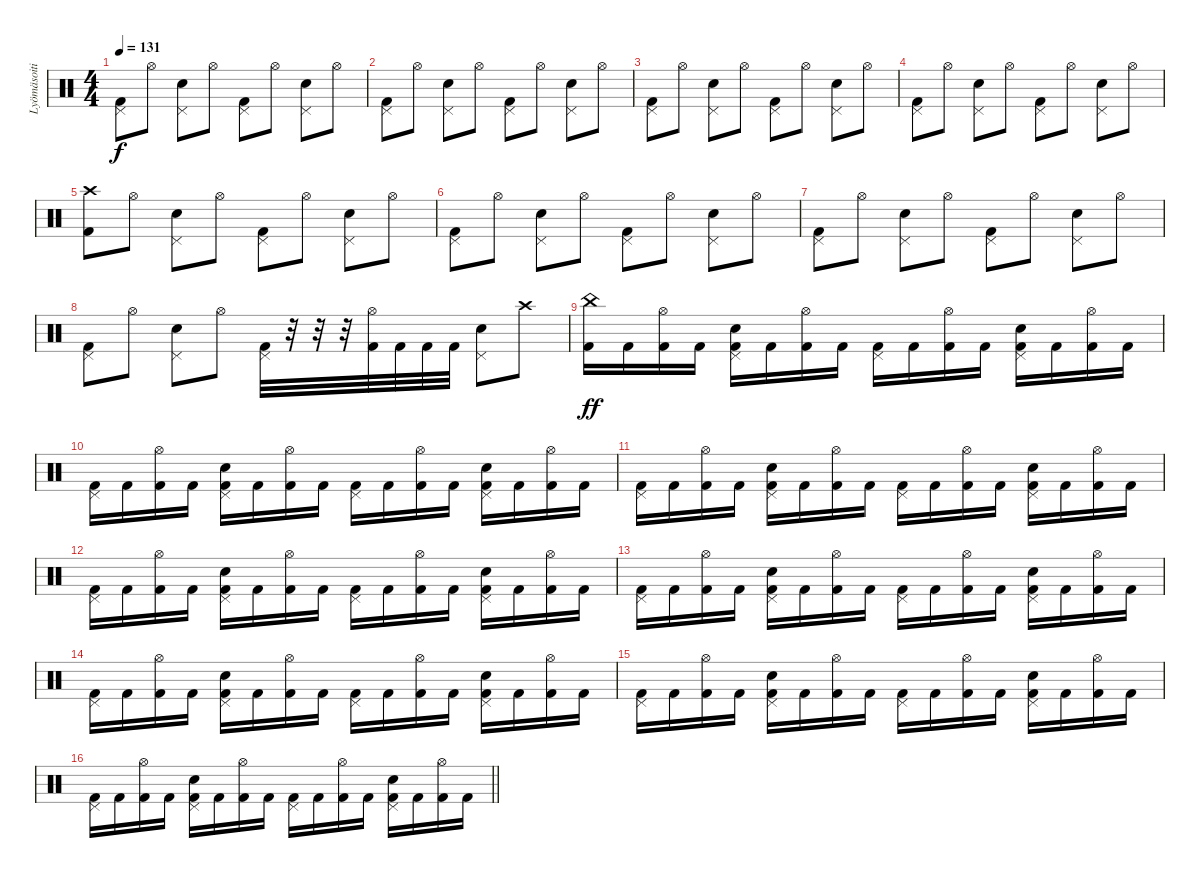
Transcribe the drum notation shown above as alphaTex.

\track ("Lyömäsoitin" "Lyömäsoiti") {instrument percussion}
\staff {score}
\articulation defaults
\ts (4 4)
\tempo 131
\clef neutral
\ks c
("Pedal Hi-Hat (hit)" "Kick (hit) 2").8{dy f} "Hi-Hat (open)".8 ("Pedal Hi-Hat (hit)" "Electric Snare (hit)").8 "Hi-Hat (open)".8 ("Pedal Hi-Hat (hit)" "Kick (hit) 2").8 "Hi-Hat (open)".8 ("Pedal Hi-Hat (hit)" "Electric Snare (hit)").8 "Hi-Hat (open)".8 |
("Pedal Hi-Hat (hit)" "Kick (hit) 2").8 "Hi-Hat (open)".8 ("Pedal Hi-Hat (hit)" "Electric Snare (hit)").8 "Hi-Hat (open)".8 ("Pedal Hi-Hat (hit)" "Kick (hit) 2").8 "Hi-Hat (open)".8 ("Pedal Hi-Hat (hit)" "Electric Snare (hit)").8 "Hi-Hat (open)".8 |
("Pedal Hi-Hat (hit)" "Kick (hit) 2").8 "Hi-Hat (open)".8 ("Pedal Hi-Hat (hit)" "Electric Snare (hit)").8 "Hi-Hat (open)".8 ("Pedal Hi-Hat (hit)" "Kick (hit) 2").8 "Hi-Hat (open)".8 ("Pedal Hi-Hat (hit)" "Electric Snare (hit)").8 "Hi-Hat (open)".8 |
("Pedal Hi-Hat (hit)" "Kick (hit) 2").8 "Hi-Hat (open)".8 ("Pedal Hi-Hat (hit)" "Electric Snare (hit)").8 "Hi-Hat (open)".8 ("Pedal Hi-Hat (hit)" "Kick (hit) 2").8 "Hi-Hat (open)".8 ("Pedal Hi-Hat (hit)" "Electric Snare (hit)").8 "Hi-Hat (open)".8 |
("Crash high (hit)" "Kick (hit) 2").8 "Hi-Hat (open)".8 ("Pedal Hi-Hat (hit)" "Electric Snare (hit)").8 "Hi-Hat (open)".8 ("Pedal Hi-Hat (hit)" "Kick (hit) 2").8 "Hi-Hat (open)".8 ("Pedal Hi-Hat (hit)" "Electric Snare (hit)").8 "Hi-Hat (open)".8 |
("Pedal Hi-Hat (hit)" "Kick (hit) 2").8 "Hi-Hat (open)".8 ("Pedal Hi-Hat (hit)" "Electric Snare (hit)").8 "Hi-Hat (open)".8 ("Pedal Hi-Hat (hit)" "Kick (hit) 2").8 "Hi-Hat (open)".8 ("Pedal Hi-Hat (hit)" "Electric Snare (hit)").8 "Hi-Hat (open)".8 |
("Pedal Hi-Hat (hit)" "Kick (hit) 2").8 "Hi-Hat (open)".8 ("Pedal Hi-Hat (hit)" "Electric Snare (hit)").8 "Hi-Hat (open)".8 ("Pedal Hi-Hat (hit)" "Kick (hit) 2").8 "Hi-Hat (open)".8 ("Pedal Hi-Hat (hit)" "Electric Snare (hit)").8 "Hi-Hat (open)".8 |
("Pedal Hi-Hat (hit)" "Kick (hit) 2").8 "Hi-Hat (open)".8 ("Pedal Hi-Hat (hit)" "Electric Snare (hit)").8 "Hi-Hat (open)".8 ("Pedal Hi-Hat (hit)" "Kick (hit) 2").32 r.32 r.32 r.32 ("Hi-Hat (open)" "Kick (hit) 2").32 "Kick (hit) 2".32 "Kick (hit) 2".32 "Kick (hit) 2".32 ("Pedal Hi-Hat (hit)" "Electric Snare (hit)").8 "Crash high (hit)".8 |
("China (hit)" "Kick (hit) 2").16{dy ff} "Kick (hit) 2".16 ("Hi-Hat (open)" "Kick (hit) 2").16 "Kick (hit) 2".16 ("Electric Snare (hit)" "Pedal Hi-Hat (hit)" "Kick (hit) 2").16 "Kick (hit) 2".16 ("Hi-Hat (open)" "Kick (hit) 2").16 "Kick (hit) 2".16 ("Pedal Hi-Hat (hit)" "Kick (hit) 2").16 "Kick (hit) 2".16 ("Hi-Hat (open)" "Kick (hit) 2").16 "Kick (hit) 2".16 ("Electric Snare (hit)" "Pedal Hi-Hat (hit)" "Kick (hit) 2").16 "Kick (hit) 2".16 ("Hi-Hat (open)" "Kick (hit) 2").16 "Kick (hit) 2".16 |
("Pedal Hi-Hat (hit)" "Kick (hit) 2").16 "Kick (hit) 2".16 ("Hi-Hat (open)" "Kick (hit) 2").16 "Kick (hit) 2".16 ("Electric Snare (hit)" "Pedal Hi-Hat (hit)" "Kick (hit) 2").16 "Kick (hit) 2".16 ("Hi-Hat (open)" "Kick (hit) 2").16 "Kick (hit) 2".16 ("Pedal Hi-Hat (hit)" "Kick (hit) 2").16 "Kick (hit) 2".16 ("Hi-Hat (open)" "Kick (hit) 2").16 "Kick (hit) 2".16 ("Electric Snare (hit)" "Pedal Hi-Hat (hit)" "Kick (hit) 2").16 "Kick (hit) 2".16 ("Hi-Hat (open)" "Kick (hit) 2").16 "Kick (hit) 2".16 |
("Pedal Hi-Hat (hit)" "Kick (hit) 2").16 "Kick (hit) 2".16 ("Hi-Hat (open)" "Kick (hit) 2").16 "Kick (hit) 2".16 ("Electric Snare (hit)" "Pedal Hi-Hat (hit)" "Kick (hit) 2").16 "Kick (hit) 2".16 ("Hi-Hat (open)" "Kick (hit) 2").16 "Kick (hit) 2".16 ("Pedal Hi-Hat (hit)" "Kick (hit) 2").16 "Kick (hit) 2".16 ("Hi-Hat (open)" "Kick (hit) 2").16 "Kick (hit) 2".16 ("Electric Snare (hit)" "Pedal Hi-Hat (hit)" "Kick (hit) 2").16 "Kick (hit) 2".16 ("Hi-Hat (open)" "Kick (hit) 2").16 "Kick (hit) 2".16 |
("Pedal Hi-Hat (hit)" "Kick (hit) 2").16 "Kick (hit) 2".16 ("Hi-Hat (open)" "Kick (hit) 2").16 "Kick (hit) 2".16 ("Electric Snare (hit)" "Pedal Hi-Hat (hit)" "Kick (hit) 2").16 "Kick (hit) 2".16 ("Hi-Hat (open)" "Kick (hit) 2").16 "Kick (hit) 2".16 ("Pedal Hi-Hat (hit)" "Kick (hit) 2").16 "Kick (hit) 2".16 ("Hi-Hat (open)" "Kick (hit) 2").16 "Kick (hit) 2".16 ("Electric Snare (hit)" "Pedal Hi-Hat (hit)" "Kick (hit) 2").16 "Kick (hit) 2".16 ("Hi-Hat (open)" "Kick (hit) 2").16 "Kick (hit) 2".16 |
("Pedal Hi-Hat (hit)" "Kick (hit) 2").16 "Kick (hit) 2".16 ("Hi-Hat (open)" "Kick (hit) 2").16 "Kick (hit) 2".16 ("Electric Snare (hit)" "Pedal Hi-Hat (hit)" "Kick (hit) 2").16 "Kick (hit) 2".16 ("Hi-Hat (open)" "Kick (hit) 2").16 "Kick (hit) 2".16 ("Pedal Hi-Hat (hit)" "Kick (hit) 2").16 "Kick (hit) 2".16 ("Hi-Hat (open)" "Kick (hit) 2").16 "Kick (hit) 2".16 ("Electric Snare (hit)" "Pedal Hi-Hat (hit)" "Kick (hit) 2").16 "Kick (hit) 2".16 ("Hi-Hat (open)" "Kick (hit) 2").16 "Kick (hit) 2".16 |
("Pedal Hi-Hat (hit)" "Kick (hit) 2").16 "Kick (hit) 2".16 ("Hi-Hat (open)" "Kick (hit) 2").16 "Kick (hit) 2".16 ("Electric Snare (hit)" "Pedal Hi-Hat (hit)" "Kick (hit) 2").16 "Kick (hit) 2".16 ("Hi-Hat (open)" "Kick (hit) 2").16 "Kick (hit) 2".16 ("Pedal Hi-Hat (hit)" "Kick (hit) 2").16 "Kick (hit) 2".16 ("Hi-Hat (open)" "Kick (hit) 2").16 "Kick (hit) 2".16 ("Electric Snare (hit)" "Pedal Hi-Hat (hit)" "Kick (hit) 2").16 "Kick (hit) 2".16 ("Hi-Hat (open)" "Kick (hit) 2").16 "Kick (hit) 2".16 |
("Pedal Hi-Hat (hit)" "Kick (hit) 2").16 "Kick (hit) 2".16 ("Hi-Hat (open)" "Kick (hit) 2").16 "Kick (hit) 2".16 ("Electric Snare (hit)" "Pedal Hi-Hat (hit)" "Kick (hit) 2").16 "Kick (hit) 2".16 ("Hi-Hat (open)" "Kick (hit) 2").16 "Kick (hit) 2".16 ("Pedal Hi-Hat (hit)" "Kick (hit) 2").16 "Kick (hit) 2".16 ("Hi-Hat (open)" "Kick (hit) 2").16 "Kick (hit) 2".16 ("Electric Snare (hit)" "Pedal Hi-Hat (hit)" "Kick (hit) 2").16 "Kick (hit) 2".16 ("Hi-Hat (open)" "Kick (hit) 2").16 "Kick (hit) 2".16 |
\barLineRight lightlight
("Pedal Hi-Hat (hit)" "Kick (hit) 2").16 "Kick (hit) 2".16 ("Hi-Hat (open)" "Kick (hit) 2").16 "Kick (hit) 2".16 ("Electric Snare (hit)" "Pedal Hi-Hat (hit)" "Kick (hit) 2").16 "Kick (hit) 2".16 ("Hi-Hat (open)" "Kick (hit) 2").16 "Kick (hit) 2".16 ("Pedal Hi-Hat (hit)" "Kick (hit) 2").16 "Kick (hit) 2".16 ("Hi-Hat (open)" "Kick (hit) 2").16 "Kick (hit) 2".16 ("Electric Snare (hit)" "Pedal Hi-Hat (hit)" "Kick (hit) 2").16 "Kick (hit) 2".16 ("Hi-Hat (open)" "Kick (hit) 2").16 "Kick (hit) 2".16
